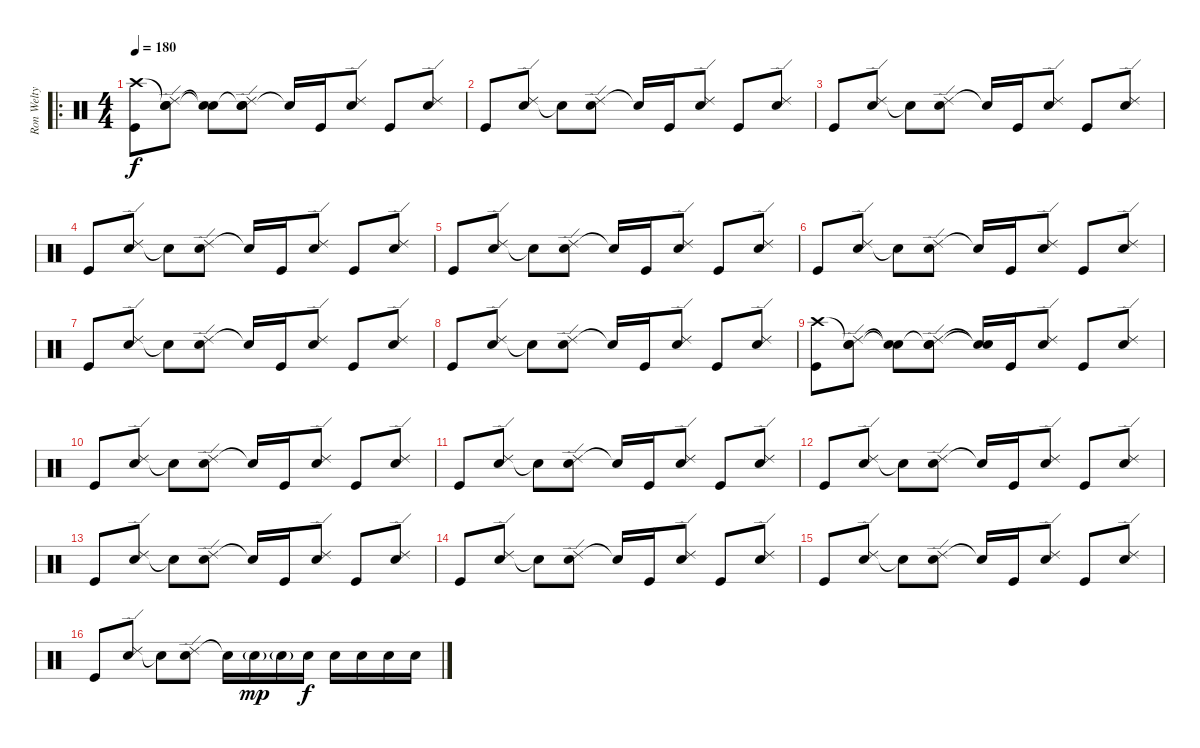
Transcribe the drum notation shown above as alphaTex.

\track ("Ron Welty" "Ron Welty") {instrument percussion}
\staff {score}
\articulation defaults
\ro
\ts (4 4)
\tempo 180
\clef neutral
\ks c
("Crash high (hit)" "Kick (hit)").8{dy f} ("Snare (hit)"{t} "Ride (edge) 2" "Snare (hit) 2").8 ("Snare (hit)"{t} "Snare (hit)"{t}).8 ("Snare (hit)"{t} "Ride (edge) 2" "Snare (hit) 2").8 "Snare (hit)"{t}.16 "Kick (hit)".16 ("Ride (edge) 2" "Snare (hit) 2").8 "Kick (hit)".8 ("Ride (edge) 2" "Snare (hit) 2").8 |
"Kick (hit)".8 ("Ride (edge) 2" "Snare (hit) 2").8 "Snare (hit)"{t}.8 ("Ride (edge) 2" "Snare (hit) 2").8 "Snare (hit)"{t}.16 "Kick (hit)".16 ("Ride (edge) 2" "Snare (hit) 2").8 "Kick (hit)".8 ("Ride (edge) 2" "Snare (hit) 2").8 |
"Kick (hit)".8 ("Ride (edge) 2" "Snare (hit) 2").8 "Snare (hit)"{t}.8 ("Ride (edge) 2" "Snare (hit) 2").8 "Snare (hit)"{t}.16 "Kick (hit)".16 ("Ride (edge) 2" "Snare (hit) 2").8 "Kick (hit)".8 ("Ride (edge) 2" "Snare (hit) 2").8 |
"Kick (hit)".8 ("Ride (edge) 2" "Snare (hit) 2").8 "Snare (hit)"{t}.8 ("Ride (edge) 2" "Snare (hit) 2").8 "Snare (hit)"{t}.16 "Kick (hit)".16 ("Ride (edge) 2" "Snare (hit) 2").8 "Kick (hit)".8 ("Ride (edge) 2" "Snare (hit) 2").8 |
"Kick (hit)".8 ("Ride (edge) 2" "Snare (hit) 2").8 "Snare (hit)"{t}.8 ("Ride (edge) 2" "Snare (hit) 2").8 "Snare (hit)"{t}.16 "Kick (hit)".16 ("Ride (edge) 2" "Snare (hit) 2").8 "Kick (hit)".8 ("Ride (edge) 2" "Snare (hit) 2").8 |
"Kick (hit)".8 ("Ride (edge) 2" "Snare (hit) 2").8 "Snare (hit)"{t}.8 ("Ride (edge) 2" "Snare (hit) 2").8 "Snare (hit)"{t}.16 "Kick (hit)".16 ("Ride (edge) 2" "Snare (hit) 2").8 "Kick (hit)".8 ("Ride (edge) 2" "Snare (hit) 2").8 |
"Kick (hit)".8 ("Ride (edge) 2" "Snare (hit) 2").8 "Snare (hit)"{t}.8 ("Ride (edge) 2" "Snare (hit) 2").8 "Snare (hit)"{t}.16 "Kick (hit)".16 ("Ride (edge) 2" "Snare (hit) 2").8 "Kick (hit)".8 ("Ride (edge) 2" "Snare (hit) 2").8 |
"Kick (hit)".8 ("Ride (edge) 2" "Snare (hit) 2").8 "Snare (hit)"{t}.8 ("Ride (edge) 2" "Snare (hit) 2").8 "Snare (hit)"{t}.16 "Kick (hit)".16 ("Ride (edge) 2" "Snare (hit) 2").8 "Kick (hit)".8 ("Ride (edge) 2" "Snare (hit) 2").8 |
("Crash high (hit)" "Kick (hit)").8 ("Snare (hit)"{t} "Ride (edge) 2" "Snare (hit) 2").8 ("Snare (hit)"{t} "Snare (hit)"{t}).8 ("Snare (hit)"{t} "Ride (edge) 2" "Snare (hit) 2").8 ("Snare (hit)"{t} "Snare (hit)"{t}).16 "Kick (hit)".16 ("Ride (edge) 2" "Snare (hit) 2").8 "Kick (hit)".8 ("Ride (edge) 2" "Snare (hit) 2").8 |
"Kick (hit)".8 ("Ride (edge) 2" "Snare (hit) 2").8 "Snare (hit)"{t}.8 ("Ride (edge) 2" "Snare (hit) 2").8 "Snare (hit)"{t}.16 "Kick (hit)".16 ("Ride (edge) 2" "Snare (hit) 2").8 "Kick (hit)".8 ("Ride (edge) 2" "Snare (hit) 2").8 |
"Kick (hit)".8 ("Ride (edge) 2" "Snare (hit) 2").8 "Snare (hit)"{t}.8 ("Ride (edge) 2" "Snare (hit) 2").8 "Snare (hit)"{t}.16 "Kick (hit)".16 ("Ride (edge) 2" "Snare (hit) 2").8 "Kick (hit)".8 ("Ride (edge) 2" "Snare (hit) 2").8 |
"Kick (hit)".8 ("Ride (edge) 2" "Snare (hit) 2").8 "Snare (hit)"{t}.8 ("Ride (edge) 2" "Snare (hit) 2").8 "Snare (hit)"{t}.16 "Kick (hit)".16 ("Ride (edge) 2" "Snare (hit) 2").8 "Kick (hit)".8 ("Ride (edge) 2" "Snare (hit) 2").8 |
"Kick (hit)".8 ("Ride (edge) 2" "Snare (hit) 2").8 "Snare (hit)"{t}.8 ("Ride (edge) 2" "Snare (hit) 2").8 "Snare (hit)"{t}.16 "Kick (hit)".16 ("Ride (edge) 2" "Snare (hit) 2").8 "Kick (hit)".8 ("Ride (edge) 2" "Snare (hit) 2").8 |
"Kick (hit)".8 ("Ride (edge) 2" "Snare (hit) 2").8 "Snare (hit)"{t}.8 ("Ride (edge) 2" "Snare (hit) 2").8 "Snare (hit)"{t}.16 "Kick (hit)".16 ("Ride (edge) 2" "Snare (hit) 2").8 "Kick (hit)".8 ("Ride (edge) 2" "Snare (hit) 2").8 |
"Kick (hit)".8 ("Ride (edge) 2" "Snare (hit) 2").8 "Snare (hit)"{t}.8 ("Ride (edge) 2" "Snare (hit) 2").8 "Snare (hit)"{t}.16 "Kick (hit)".16 ("Ride (edge) 2" "Snare (hit) 2").8 "Kick (hit)".8 ("Ride (edge) 2" "Snare (hit) 2").8 |
"Kick (hit)".8 ("Ride (edge) 2" "Snare (hit) 2").8 "Snare (hit)"{t}.8 ("Ride (edge) 2" "Snare (hit) 2").8 "Snare (hit)"{t}.16 "Snare (hit) 2"{g}.16{dy mp} "Snare (hit) 2"{g}.16 "Snare (hit) 2".16{dy f} "Snare (hit) 2".16 "Snare (hit) 2".16 "Snare (hit) 2".16 "Snare (hit) 2".16
